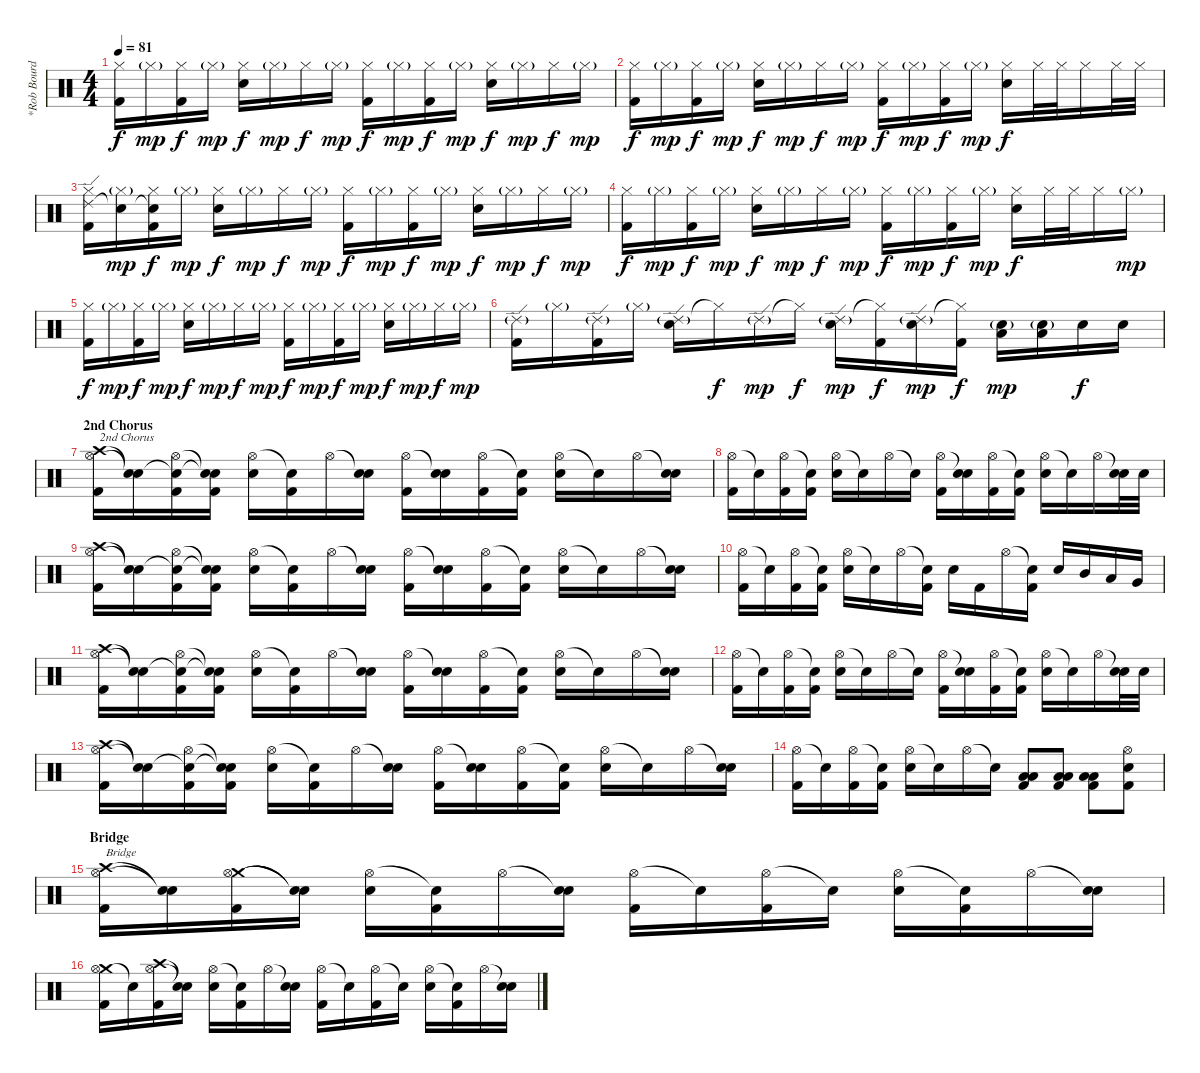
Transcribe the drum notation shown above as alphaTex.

\track ("*Rob Bourdon (Drums)" "*Rob Bourd") {instrument percussion}
\staff {score}
\articulation defaults
\ts (4 4)
\tempo 81
\clef neutral
\ks c
("Hi-Hat (closed)" "Kick (hit) 2").16{dy f} "Hi-Hat (closed)"{g}.16{dy mp} ("Hi-Hat (closed)" "Kick (hit) 2").16{dy f} "Hi-Hat (closed)"{g}.16{dy mp} ("Hi-Hat (closed)" "Electric Snare (hit)").16{dy f} "Hi-Hat (closed)"{g}.16{dy mp} "Hi-Hat (closed)".16{dy f} "Hi-Hat (closed)"{g}.16{dy mp} ("Hi-Hat (closed)" "Kick (hit) 2").16{dy f} "Hi-Hat (closed)"{g}.16{dy mp} ("Hi-Hat (closed)" "Kick (hit) 2").16{dy f} "Hi-Hat (closed)"{g}.16{dy mp} ("Hi-Hat (closed)" "Electric Snare (hit)").16{dy f} "Hi-Hat (closed)"{g}.16{dy mp} "Hi-Hat (closed)".16{dy f} "Hi-Hat (closed)"{g}.16{dy mp} |
("Hi-Hat (closed)" "Kick (hit) 2").16{dy f} "Hi-Hat (closed)"{g}.16{dy mp} ("Hi-Hat (closed)" "Kick (hit) 2").16{dy f} "Hi-Hat (closed)"{g}.16{dy mp} ("Hi-Hat (closed)" "Electric Snare (hit)").16{dy f} "Hi-Hat (closed)"{g}.16{dy mp} "Hi-Hat (closed)".16{dy f} "Hi-Hat (closed)"{g}.16{dy mp} ("Hi-Hat (closed)" "Kick (hit) 2").16{dy f} "Hi-Hat (closed)"{g}.16{dy mp} ("Hi-Hat (closed)" "Kick (hit) 2").16{dy f} "Hi-Hat (closed)"{g}.16{dy mp} ("Hi-Hat (closed)" "Electric Snare (hit)").16{dy f} "Hi-Hat (closed)".32 "Hi-Hat (closed)".32 "Hi-Hat (closed)".16 "Hi-Hat (closed)".32 "Hi-Hat (closed)".32 |
("Ride (edge) 2" "Hi-Hat (closed)" "Kick (hit) 2").16 ("Snare (hit)"{t} "Hi-Hat (closed)"{g}).16{dy mp} ("Snare (hit)"{t} "Hi-Hat (closed)" "Kick (hit) 2").16{dy f} "Hi-Hat (closed)"{g}.16{dy mp} ("Hi-Hat (closed)" "Electric Snare (hit)").16{dy f} "Hi-Hat (closed)"{g}.16{dy mp} "Hi-Hat (closed)".16{dy f} "Hi-Hat (closed)"{g}.16{dy mp} ("Hi-Hat (closed)" "Kick (hit) 2").16{dy f} "Hi-Hat (closed)"{g}.16{dy mp} ("Hi-Hat (closed)" "Kick (hit) 2").16{dy f} "Hi-Hat (closed)"{g}.16{dy mp} ("Hi-Hat (closed)" "Electric Snare (hit)").16{dy f} "Hi-Hat (closed)"{g}.16{dy mp} "Hi-Hat (closed)".16{dy f} "Hi-Hat (closed)"{g}.16{dy mp} |
("Hi-Hat (closed)" "Kick (hit) 2").16{dy f} "Hi-Hat (closed)"{g}.16{dy mp} ("Hi-Hat (closed)" "Kick (hit) 2").16{dy f} "Hi-Hat (closed)"{g}.16{dy mp} ("Hi-Hat (closed)" "Electric Snare (hit)").16{dy f} "Hi-Hat (closed)"{g}.16{dy mp} "Hi-Hat (closed)".16{dy f} "Hi-Hat (closed)"{g}.16{dy mp} ("Hi-Hat (closed)" "Kick (hit) 2").16{dy f} "Hi-Hat (closed)"{g}.16{dy mp} ("Hi-Hat (closed)" "Kick (hit) 2").16{dy f} "Hi-Hat (closed)"{g}.16{dy mp} ("Hi-Hat (closed)" "Electric Snare (hit)").16{dy f} "Hi-Hat (closed)".32 "Hi-Hat (closed)".32 "Hi-Hat (closed)".16 "Hi-Hat (closed)"{g}.16{dy mp} |
("Hi-Hat (closed)" "Kick (hit) 2").16{dy f} "Hi-Hat (closed)"{g}.16{dy mp} ("Hi-Hat (closed)" "Kick (hit) 2").16{dy f} "Hi-Hat (closed)"{g}.16{dy mp} ("Hi-Hat (closed)" "Electric Snare (hit)").16{dy f} "Hi-Hat (closed)"{g}.16{dy mp} "Hi-Hat (closed)".16{dy f} "Hi-Hat (closed)"{g}.16{dy mp} ("Hi-Hat (closed)" "Kick (hit) 2").16{dy f} "Hi-Hat (closed)"{g}.16{dy mp} ("Hi-Hat (closed)" "Kick (hit) 2").16{dy f} "Hi-Hat (closed)"{g}.16{dy mp} ("Hi-Hat (closed)" "Electric Snare (hit)").16{dy f} "Hi-Hat (closed)"{g}.16{dy mp} "Hi-Hat (closed)".16{dy f} "Hi-Hat (closed)"{g}.16{dy mp} |
("Ride (edge) 2"{g} "Kick (hit) 2").16 "Hi-Hat (closed)"{g}.16 ("Ride (edge) 2"{g} "Kick (hit) 2").16 "Hi-Hat (closed)"{g}.16 ("Ride (edge) 2"{g} "Electric Snare (hit)").16 "Hi-Hat (closed)"{t}.16{dy f} "Ride (edge) 2"{g}.16{dy mp} "Hi-Hat (closed)"{t}.16{dy f} ("Ride (edge) 2"{g} "Electric Snare (hit)").16{dy mp} ("Hi-Hat (closed)"{t} "Kick (hit) 2").16{dy f} ("Ride (edge) 2"{g} "Electric Snare (hit)").16{dy mp} ("Hi-Hat (closed)"{t} "Kick (hit) 2").16{dy f} ("Electric Snare (hit)"{g} "Low Tom (hit)").16{dy mp} ("Electric Snare (hit)"{g} "Low Tom (hit)").16 "Electric Snare (hit)".16{dy f} "Electric Snare (hit)".16 |
\section ("" "2nd Chorus")
("Crash high (hit)" "Hi-Hat (open)" "Kick (hit) 2").16{txt "2nd Chorus"} ("Snare (hit)"{t} "Snare (hit)"{t}).16 ("Snare (hit)"{t} "Hi-Hat (open)" "Kick (hit) 2").16 ("Snare (hit)"{t} "Snare (hit)"{t} "Kick (hit) 2").16 ("Hi-Hat (open)" "Electric Snare (hit)").16 ("Snare (hit)"{t} "Kick (hit) 2").16 "Hi-Hat (open)".16 ("Snare (hit)"{t} "Electric Snare (hit)").16 ("Hi-Hat (open)" "Kick (hit) 2").16 ("Snare (hit)"{t} "Electric Snare (hit)").16 ("Hi-Hat (open)" "Kick (hit) 2").16 ("Snare (hit)"{t} "Kick (hit) 2").16 ("Hi-Hat (open)" "Electric Snare (hit)").16 "Snare (hit)"{t}.16 "Hi-Hat (open)".16 ("Snare (hit)"{t} "Electric Snare (hit)").16 |
("Hi-Hat (open)" "Kick (hit) 2").16 "Snare (hit)"{t}.16 ("Hi-Hat (open)" "Kick (hit) 2").16 ("Snare (hit)"{t} "Kick (hit) 2").16 ("Hi-Hat (open)" "Electric Snare (hit)").16 "Snare (hit)"{t}.16 "Hi-Hat (open)".16 "Snare (hit)"{t}.16 ("Hi-Hat (open)" "Kick (hit) 2").16 ("Snare (hit)"{t} "Electric Snare (hit)").16 ("Hi-Hat (open)" "Kick (hit) 2").16 ("Snare (hit)"{t} "Kick (hit) 2").16 ("Hi-Hat (open)" "Electric Snare (hit)").16 "Snare (hit)"{t}.16 "Hi-Hat (open)".16 ("Snare (hit)"{t} "Electric Snare (hit)").32 "Electric Snare (hit)".32 |
("Crash high (hit)" "Hi-Hat (open)" "Kick (hit) 2").16 ("Snare (hit)"{t} "Snare (hit)"{t}).16 ("Snare (hit)"{t} "Hi-Hat (open)" "Kick (hit) 2").16 ("Snare (hit)"{t} "Snare (hit)"{t} "Kick (hit) 2").16 ("Hi-Hat (open)" "Electric Snare (hit)").16 ("Snare (hit)"{t} "Kick (hit) 2").16 "Hi-Hat (open)".16 ("Snare (hit)"{t} "Electric Snare (hit)").16 ("Hi-Hat (open)" "Kick (hit) 2").16 ("Snare (hit)"{t} "Electric Snare (hit)").16 ("Hi-Hat (open)" "Kick (hit) 2").16 ("Snare (hit)"{t} "Kick (hit) 2").16 ("Hi-Hat (open)" "Electric Snare (hit)").16 "Snare (hit)"{t}.16 "Hi-Hat (open)".16 ("Snare (hit)"{t} "Electric Snare (hit)").16 |
("Hi-Hat (open)" "Kick (hit) 2").16 "Snare (hit)"{t}.16 ("Hi-Hat (open)" "Kick (hit) 2").16 ("Snare (hit)"{t} "Kick (hit) 2").16 ("Hi-Hat (open)" "Electric Snare (hit)").16 "Snare (hit)"{t}.16 "Hi-Hat (open)".16 ("Snare (hit)"{t} "Kick (hit) 2").16 "Electric Snare (hit)".16 "Kick (hit) 2".16 "Hi-Hat (open)".16 ("Snare (hit)"{t} "Kick (hit) 2").16 "Electric Snare (hit)".16 "Mid Tom (hit)".16 "Low Tom (hit)".16 "Very Low Tom (hit)".16 |
("Crash high (hit)" "Hi-Hat (open)" "Kick (hit) 2").16 ("Snare (hit)"{t} "Snare (hit)"{t}).16 ("Snare (hit)"{t} "Hi-Hat (open)" "Kick (hit) 2").16 ("Snare (hit)"{t} "Snare (hit)"{t} "Kick (hit) 2").16 ("Hi-Hat (open)" "Electric Snare (hit)").16 ("Snare (hit)"{t} "Kick (hit) 2").16 "Hi-Hat (open)".16 ("Snare (hit)"{t} "Electric Snare (hit)").16 ("Hi-Hat (open)" "Kick (hit) 2").16 ("Snare (hit)"{t} "Electric Snare (hit)").16 ("Hi-Hat (open)" "Kick (hit) 2").16 ("Snare (hit)"{t} "Kick (hit) 2").16 ("Hi-Hat (open)" "Electric Snare (hit)").16 "Snare (hit)"{t}.16 "Hi-Hat (open)".16 ("Snare (hit)"{t} "Electric Snare (hit)").16 |
("Hi-Hat (open)" "Kick (hit) 2").16 "Snare (hit)"{t}.16 ("Hi-Hat (open)" "Kick (hit) 2").16 ("Snare (hit)"{t} "Kick (hit) 2").16 ("Hi-Hat (open)" "Electric Snare (hit)").16 "Snare (hit)"{t}.16 "Hi-Hat (open)".16 "Snare (hit)"{t}.16 ("Hi-Hat (open)" "Kick (hit) 2").16 ("Snare (hit)"{t} "Electric Snare (hit)").16 ("Hi-Hat (open)" "Kick (hit) 2").16 ("Snare (hit)"{t} "Kick (hit) 2").16 ("Hi-Hat (open)" "Electric Snare (hit)").16 "Snare (hit)"{t}.16 "Hi-Hat (open)".16 ("Snare (hit)"{t} "Electric Snare (hit)").32 "Electric Snare (hit)".32 |
("Crash high (hit)" "Hi-Hat (open)" "Kick (hit) 2").16 ("Snare (hit)"{t} "Snare (hit)"{t}).16 ("Snare (hit)"{t} "Hi-Hat (open)" "Kick (hit) 2").16 ("Snare (hit)"{t} "Snare (hit)"{t} "Kick (hit) 2").16 ("Hi-Hat (open)" "Electric Snare (hit)").16 ("Snare (hit)"{t} "Kick (hit) 2").16 "Hi-Hat (open)".16 ("Snare (hit)"{t} "Electric Snare (hit)").16 ("Hi-Hat (open)" "Kick (hit) 2").16 ("Snare (hit)"{t} "Electric Snare (hit)").16 ("Hi-Hat (open)" "Kick (hit) 2").16 ("Snare (hit)"{t} "Kick (hit) 2").16 ("Hi-Hat (open)" "Electric Snare (hit)").16 "Snare (hit)"{t}.16 "Hi-Hat (open)".16 ("Snare (hit)"{t} "Electric Snare (hit)").16 |
("Hi-Hat (open)" "Kick (hit) 2").16 "Snare (hit)"{t}.16 ("Hi-Hat (open)" "Kick (hit) 2").16 ("Snare (hit)"{t} "Kick (hit) 2").16 ("Hi-Hat (open)" "Electric Snare (hit)").16 "Snare (hit)"{t}.16 "Hi-Hat (open)".16 "Snare (hit)"{t}.16 ("Low Floor Tom (hit)" "Low Tom (hit)" "Kick (hit) 2").8 ("Low Floor Tom (hit)" "Low Tom (hit)" "Kick (hit) 2").8 ("Low Floor Tom (hit)" "Low Tom (hit)" "Kick (hit) 2").8 ("Hi-Hat (open)" "Electric Snare (hit)" "Kick (hit) 2").8 |
\section ("" "Bridge")
("Crash high (hit)" "Hi-Hat (open)" "Kick (hit) 2").16{txt "Bridge"} ("Snare (hit)"{t} "Snare (hit)"{t}).16 ("Crash medium (hit)" "Hi-Hat (open)" "Kick (hit) 2").16 ("Snare (hit)"{t} "Snare (hit)"{t}).16 ("Hi-Hat (open)" "Electric Snare (hit)").16 ("Snare (hit)"{t} "Kick (hit) 2").16 "Hi-Hat (open)".16 ("Snare (hit)"{t} "Electric Snare (hit)").16 ("Hi-Hat (open)" "Kick (hit) 2").16 "Snare (hit)"{t}.16 ("Hi-Hat (open)" "Kick (hit) 2").16 "Snare (hit)"{t}.16 ("Hi-Hat (open)" "Electric Snare (hit)").16 ("Snare (hit)"{t} "Kick (hit) 2").16 "Hi-Hat (open)".16 ("Snare (hit)"{t} "Electric Snare (hit)").16 |
("Crash medium (hit)" "Hi-Hat (open)" "Kick (hit) 2").16 "Snare (hit)"{t}.16 ("Crash high (hit)" "Hi-Hat (open)" "Kick (hit) 2").16 ("Snare (hit)"{t} "Snare (hit)"{t}).16 ("Hi-Hat (open)" "Electric Snare (hit)").16 ("Snare (hit)"{t} "Kick (hit) 2").16 "Hi-Hat (open)".16 ("Snare (hit)"{t} "Electric Snare (hit)").16 ("Hi-Hat (open)" "Kick (hit) 2").16 "Snare (hit)"{t}.16 ("Hi-Hat (open)" "Kick (hit) 2").16 "Snare (hit)"{t}.16 ("Hi-Hat (open)" "Electric Snare (hit)").16 ("Snare (hit)"{t} "Kick (hit) 2").16 "Hi-Hat (open)".16 ("Snare (hit)"{t} "Electric Snare (hit)").16
